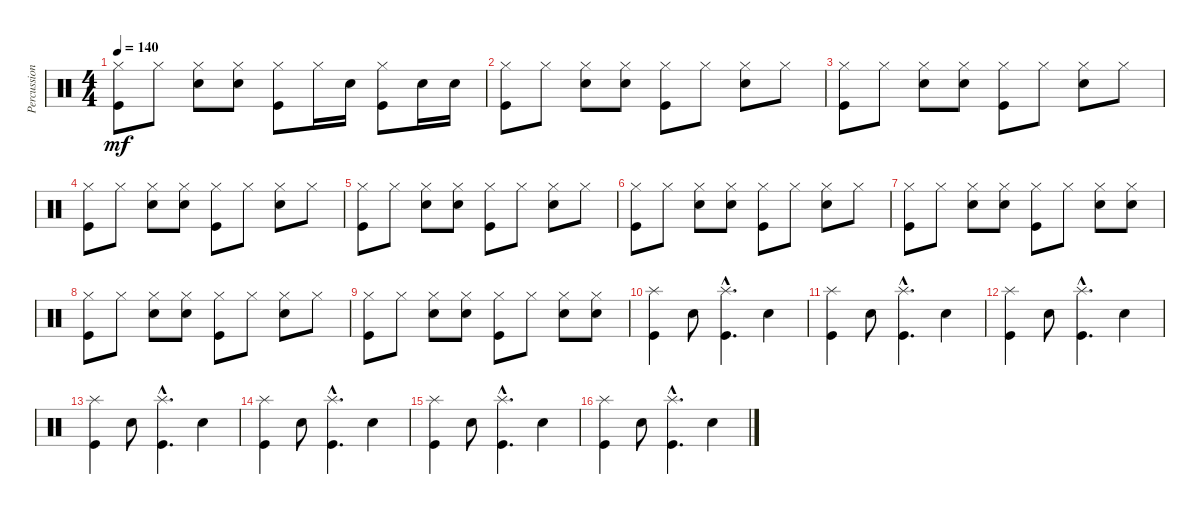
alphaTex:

\track ("Percussion" "Percussion") {instrument percussion}
\staff {score}
\articulation defaults
\ts (4 4)
\tempo 140
\clef neutral
\ks c
("Hi-Hat (closed)" "Kick (hit)").8{dy mf} "Hi-Hat (closed)".8 ("Hi-Hat (closed)" "Snare (hit) 2").8 ("Hi-Hat (closed)" "Snare (hit) 2").8 ("Hi-Hat (closed)" "Kick (hit)").8 "Hi-Hat (closed)".16 "Snare (hit) 2".16 ("Hi-Hat (closed)" "Kick (hit)").8 "Snare (hit) 2".16 "Snare (hit) 2".16 |
("Hi-Hat (closed)" "Kick (hit)").8 "Hi-Hat (closed)".8 ("Hi-Hat (closed)" "Snare (hit) 2").8 ("Hi-Hat (closed)" "Snare (hit) 2").8 ("Hi-Hat (closed)" "Kick (hit)").8 "Hi-Hat (closed)".8 ("Hi-Hat (closed)" "Snare (hit) 2").8 "Hi-Hat (closed)".8 |
("Hi-Hat (closed)" "Kick (hit)").8 "Hi-Hat (closed)".8 ("Hi-Hat (closed)" "Snare (hit) 2").8 ("Hi-Hat (closed)" "Snare (hit) 2").8 ("Hi-Hat (closed)" "Kick (hit)").8 "Hi-Hat (closed)".8 ("Hi-Hat (closed)" "Snare (hit) 2").8 "Hi-Hat (closed)".8 |
("Hi-Hat (closed)" "Kick (hit)").8 "Hi-Hat (closed)".8 ("Hi-Hat (closed)" "Snare (hit) 2").8 ("Hi-Hat (closed)" "Snare (hit) 2").8 ("Hi-Hat (closed)" "Kick (hit)").8 "Hi-Hat (closed)".8 ("Hi-Hat (closed)" "Snare (hit) 2").8 "Hi-Hat (closed)".8 |
("Hi-Hat (closed)" "Kick (hit)").8 "Hi-Hat (closed)".8 ("Hi-Hat (closed)" "Snare (hit) 2").8 ("Hi-Hat (closed)" "Snare (hit) 2").8 ("Hi-Hat (closed)" "Kick (hit)").8 "Hi-Hat (closed)".8 ("Hi-Hat (closed)" "Snare (hit) 2").8 "Hi-Hat (closed)".8 |
("Hi-Hat (closed)" "Kick (hit)").8 "Hi-Hat (closed)".8 ("Hi-Hat (closed)" "Snare (hit) 2").8 ("Hi-Hat (closed)" "Snare (hit) 2").8 ("Hi-Hat (closed)" "Kick (hit)").8 "Hi-Hat (closed)".8 ("Hi-Hat (closed)" "Snare (hit) 2").8 "Hi-Hat (closed)".8 |
("Hi-Hat (closed)" "Kick (hit)").8 "Hi-Hat (closed)".8 ("Hi-Hat (closed)" "Snare (hit) 2").8 ("Hi-Hat (closed)" "Snare (hit) 2").8 ("Hi-Hat (closed)" "Kick (hit)").8 "Hi-Hat (closed)".8 ("Hi-Hat (closed)" "Snare (hit) 2").8 ("Hi-Hat (closed)" "Snare (hit) 2").8 |
("Hi-Hat (closed)" "Kick (hit)").8 "Hi-Hat (closed)".8 ("Hi-Hat (closed)" "Snare (hit) 2").8 ("Hi-Hat (closed)" "Snare (hit) 2").8 ("Hi-Hat (closed)" "Kick (hit)").8 "Hi-Hat (closed)".8 ("Hi-Hat (closed)" "Snare (hit) 2").8 "Hi-Hat (closed)".8 |
("Hi-Hat (closed)" "Kick (hit)").8 "Hi-Hat (closed)".8 ("Hi-Hat (closed)" "Snare (hit) 2").8 ("Hi-Hat (closed)" "Snare (hit) 2").8 ("Hi-Hat (closed)" "Kick (hit)").8 "Hi-Hat (closed)".8 ("Hi-Hat (closed)" "Snare (hit) 2").8 ("Hi-Hat (closed)" "Snare (hit) 2").8 |
("Splash (hit)" "Kick (hit)").4 "Snare (hit) 2".8 ("Splash (hit)"{hac} "Kick (hit)"{hac}).4{d} "Snare (hit) 2".4 |
("Splash (hit)" "Kick (hit)").4 "Snare (hit) 2".8 ("Splash (hit)"{hac} "Kick (hit)"{hac}).4{d} "Snare (hit) 2".4 |
("Splash (hit)" "Kick (hit)").4 "Snare (hit) 2".8 ("Splash (hit)"{hac} "Kick (hit)"{hac}).4{d} "Snare (hit) 2".4 |
("Splash (hit)" "Kick (hit)").4 "Snare (hit) 2".8 ("Splash (hit)"{hac} "Kick (hit)"{hac}).4{d} "Snare (hit) 2".4 |
("Splash (hit)" "Kick (hit)").4 "Snare (hit) 2".8 ("Splash (hit)"{hac} "Kick (hit)"{hac}).4{d} "Snare (hit) 2".4 |
("Splash (hit)" "Kick (hit)").4 "Snare (hit) 2".8 ("Splash (hit)"{hac} "Kick (hit)"{hac}).4{d} "Snare (hit) 2".4 |
("Splash (hit)" "Kick (hit)").4 "Snare (hit) 2".8 ("Splash (hit)"{hac} "Kick (hit)"{hac}).4{d} "Snare (hit) 2".4
